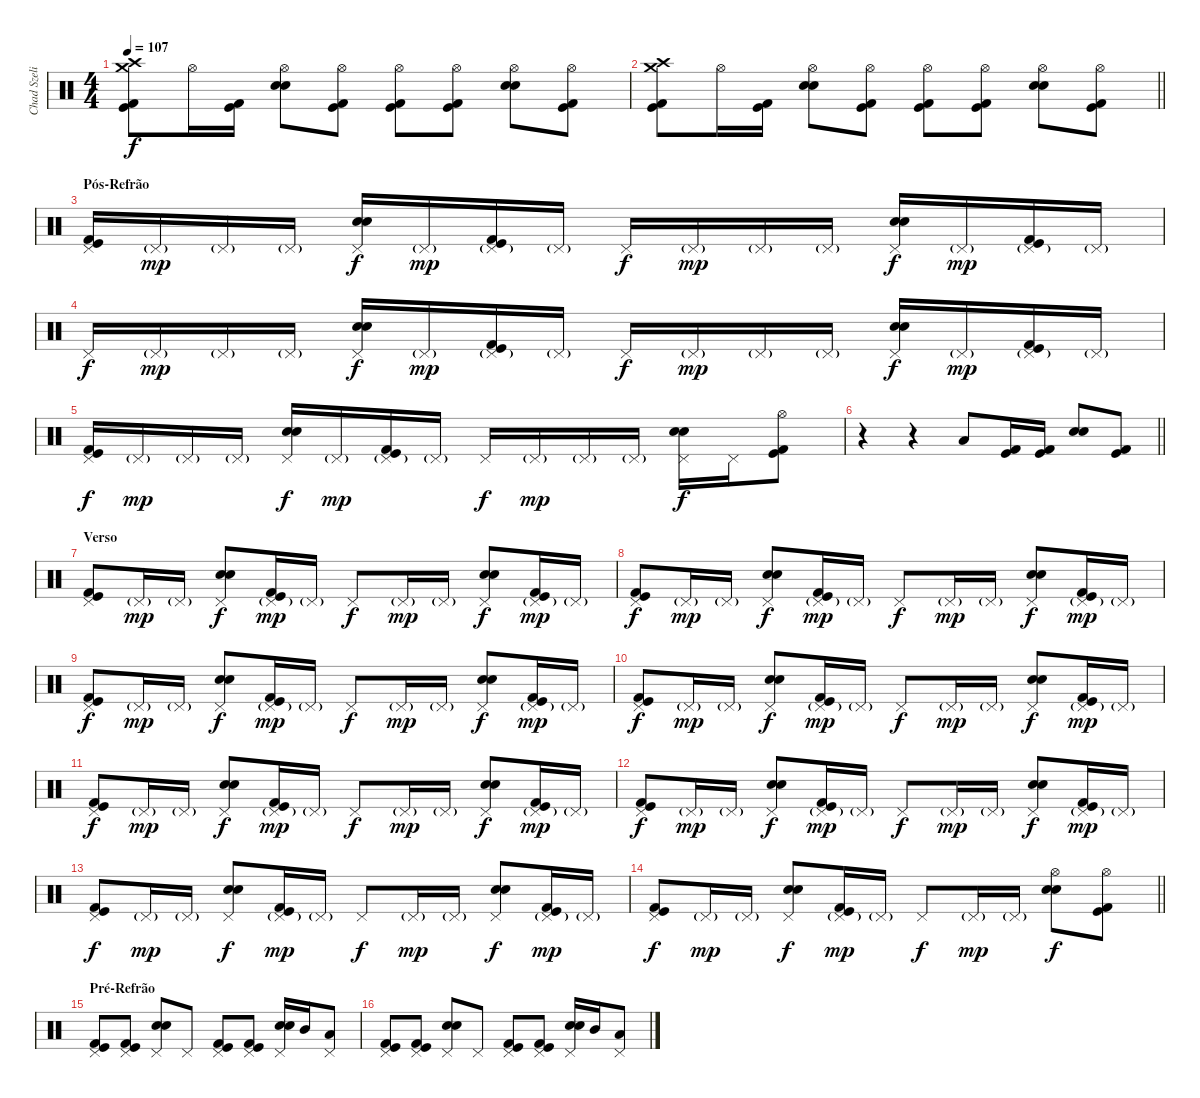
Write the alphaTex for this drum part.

\track ("Chad Szeliga" "Chad Szeli") {instrument percussion}
\staff {score}
\articulation defaults
\ts (4 4)
\tempo 107
\clef neutral
\ks c
("Crash high (hit)" "Kick (hit) 2" "Kick (hit)" "Crash medium (hit)").8{dy f} "Hi-Hat (open)".16 ("Kick (hit) 2" "Kick (hit)").16 ("Snare (hit) 2" "Snare (hit) 2" "Hi-Hat (open)").8 ("Kick (hit) 2" "Kick (hit)" "Hi-Hat (open)").8 ("Kick (hit) 2" "Kick (hit)" "Hi-Hat (open)").8 ("Kick (hit) 2" "Kick (hit)" "Hi-Hat (open)").8 ("Snare (hit) 2" "Snare (hit) 2" "Hi-Hat (open)").8 ("Kick (hit) 2" "Kick (hit)" "Hi-Hat (open)").8 |
\barLineRight lightlight
("Crash high (hit)" "Kick (hit) 2" "Kick (hit)" "Crash medium (hit)").8 "Hi-Hat (open)".16 ("Kick (hit) 2" "Kick (hit)").16 ("Snare (hit) 2" "Snare (hit) 2" "Hi-Hat (open)").8 ("Kick (hit) 2" "Kick (hit)" "Hi-Hat (open)").8 ("Kick (hit) 2" "Kick (hit)" "Hi-Hat (open)").8 ("Kick (hit) 2" "Kick (hit)" "Hi-Hat (open)").8 ("Snare (hit) 2" "Snare (hit) 2" "Hi-Hat (open)").8 ("Kick (hit) 2" "Kick (hit)" "Hi-Hat (open)").8 |
\section ("" "Pós-Refrão")
("Kick (hit) 2" "Kick (hit)" "Pedal Hi-Hat (hit)").16 "Pedal Hi-Hat (hit)"{g}.16{dy mp} "Pedal Hi-Hat (hit)"{g}.16 "Pedal Hi-Hat (hit)"{g}.16 ("Snare (hit) 2" "Snare (hit) 2" "Pedal Hi-Hat (hit)").16{dy f} "Pedal Hi-Hat (hit)"{g}.16{dy mp} ("Kick (hit) 2" "Kick (hit)" "Pedal Hi-Hat (hit)"{g}).16 "Pedal Hi-Hat (hit)"{g}.16 "Pedal Hi-Hat (hit)".16{dy f} "Pedal Hi-Hat (hit)"{g}.16{dy mp} "Pedal Hi-Hat (hit)"{g}.16 "Pedal Hi-Hat (hit)"{g}.16 ("Snare (hit) 2" "Snare (hit) 2" "Pedal Hi-Hat (hit)").16{dy f} "Pedal Hi-Hat (hit)"{g}.16{dy mp} ("Kick (hit) 2" "Kick (hit)" "Pedal Hi-Hat (hit)"{g}).16 "Pedal Hi-Hat (hit)"{g}.16 |
"Pedal Hi-Hat (hit)".16{dy f} "Pedal Hi-Hat (hit)"{g}.16{dy mp} "Pedal Hi-Hat (hit)"{g}.16 "Pedal Hi-Hat (hit)"{g}.16 ("Snare (hit) 2" "Snare (hit) 2" "Pedal Hi-Hat (hit)").16{dy f} "Pedal Hi-Hat (hit)"{g}.16{dy mp} ("Kick (hit) 2" "Kick (hit)" "Pedal Hi-Hat (hit)"{g}).16 "Pedal Hi-Hat (hit)"{g}.16 "Pedal Hi-Hat (hit)".16{dy f} "Pedal Hi-Hat (hit)"{g}.16{dy mp} "Pedal Hi-Hat (hit)"{g}.16 "Pedal Hi-Hat (hit)"{g}.16 ("Snare (hit) 2" "Snare (hit) 2" "Pedal Hi-Hat (hit)").16{dy f} "Pedal Hi-Hat (hit)"{g}.16{dy mp} ("Kick (hit) 2" "Kick (hit)" "Pedal Hi-Hat (hit)"{g}).16 "Pedal Hi-Hat (hit)"{g}.16 |
("Kick (hit) 2" "Kick (hit)" "Pedal Hi-Hat (hit)").16{dy f} "Pedal Hi-Hat (hit)"{g}.16{dy mp} "Pedal Hi-Hat (hit)"{g}.16 "Pedal Hi-Hat (hit)"{g}.16 ("Snare (hit) 2" "Snare (hit) 2" "Pedal Hi-Hat (hit)").16{dy f} "Pedal Hi-Hat (hit)"{g}.16{dy mp} ("Kick (hit) 2" "Kick (hit)" "Pedal Hi-Hat (hit)"{g}).16 "Pedal Hi-Hat (hit)"{g}.16 "Pedal Hi-Hat (hit)".16{dy f} "Pedal Hi-Hat (hit)"{g}.16{dy mp} "Pedal Hi-Hat (hit)"{g}.16 "Pedal Hi-Hat (hit)"{g}.16 ("Snare (hit) 2" "Snare (hit) 2" "Pedal Hi-Hat (hit)").16{dy f} "Pedal Hi-Hat (hit)".16 ("Kick (hit) 2" "Kick (hit)" "Hi-Hat (open)").8 |
\barLineRight lightlight
r.4 r.4 "Low Tom (hit)".8 ("Kick (hit) 2" "Kick (hit)").16 ("Kick (hit) 2" "Kick (hit)").16 ("Snare (hit) 2" "Snare (hit) 2").8 ("Kick (hit) 2" "Kick (hit)").8 |
\section ("" "Verso")
("Kick (hit) 2" "Kick (hit)" "Pedal Hi-Hat (hit)").8 "Pedal Hi-Hat (hit)"{g}.16{dy mp} "Pedal Hi-Hat (hit)"{g}.16 ("Snare (hit) 2" "Snare (hit) 2" "Pedal Hi-Hat (hit)").8{dy f} ("Kick (hit) 2" "Kick (hit)" "Pedal Hi-Hat (hit)"{g}).16{dy mp} "Pedal Hi-Hat (hit)"{g}.16 "Pedal Hi-Hat (hit)".8{dy f} "Pedal Hi-Hat (hit)"{g}.16{dy mp} "Pedal Hi-Hat (hit)"{g}.16 ("Snare (hit) 2" "Snare (hit) 2" "Pedal Hi-Hat (hit)").8{dy f} ("Kick (hit) 2" "Kick (hit)" "Pedal Hi-Hat (hit)"{g}).16{dy mp} "Pedal Hi-Hat (hit)"{g}.16 |
("Kick (hit) 2" "Kick (hit)" "Pedal Hi-Hat (hit)").8{dy f} "Pedal Hi-Hat (hit)"{g}.16{dy mp} "Pedal Hi-Hat (hit)"{g}.16 ("Snare (hit) 2" "Snare (hit) 2" "Pedal Hi-Hat (hit)").8{dy f} ("Kick (hit) 2" "Kick (hit)" "Pedal Hi-Hat (hit)"{g}).16{dy mp} "Pedal Hi-Hat (hit)"{g}.16 "Pedal Hi-Hat (hit)".8{dy f} "Pedal Hi-Hat (hit)"{g}.16{dy mp} "Pedal Hi-Hat (hit)"{g}.16 ("Snare (hit) 2" "Snare (hit) 2" "Pedal Hi-Hat (hit)").8{dy f} ("Kick (hit) 2" "Kick (hit)" "Pedal Hi-Hat (hit)"{g}).16{dy mp} "Pedal Hi-Hat (hit)"{g}.16 |
("Kick (hit) 2" "Kick (hit)" "Pedal Hi-Hat (hit)").8{dy f} "Pedal Hi-Hat (hit)"{g}.16{dy mp} "Pedal Hi-Hat (hit)"{g}.16 ("Snare (hit) 2" "Snare (hit) 2" "Pedal Hi-Hat (hit)").8{dy f} ("Kick (hit) 2" "Kick (hit)" "Pedal Hi-Hat (hit)"{g}).16{dy mp} "Pedal Hi-Hat (hit)"{g}.16 "Pedal Hi-Hat (hit)".8{dy f} "Pedal Hi-Hat (hit)"{g}.16{dy mp} "Pedal Hi-Hat (hit)"{g}.16 ("Snare (hit) 2" "Snare (hit) 2" "Pedal Hi-Hat (hit)").8{dy f} ("Kick (hit) 2" "Kick (hit)" "Pedal Hi-Hat (hit)"{g}).16{dy mp} "Pedal Hi-Hat (hit)"{g}.16 |
("Kick (hit) 2" "Kick (hit)" "Pedal Hi-Hat (hit)").8{dy f} "Pedal Hi-Hat (hit)"{g}.16{dy mp} "Pedal Hi-Hat (hit)"{g}.16 ("Snare (hit) 2" "Snare (hit) 2" "Pedal Hi-Hat (hit)").8{dy f} ("Kick (hit) 2" "Kick (hit)" "Pedal Hi-Hat (hit)"{g}).16{dy mp} "Pedal Hi-Hat (hit)"{g}.16 "Pedal Hi-Hat (hit)".8{dy f} "Pedal Hi-Hat (hit)"{g}.16{dy mp} "Pedal Hi-Hat (hit)"{g}.16 ("Snare (hit) 2" "Snare (hit) 2" "Pedal Hi-Hat (hit)").8{dy f} ("Kick (hit) 2" "Kick (hit)" "Pedal Hi-Hat (hit)"{g}).16{dy mp} "Pedal Hi-Hat (hit)"{g}.16 |
("Kick (hit) 2" "Kick (hit)" "Pedal Hi-Hat (hit)").8{dy f} "Pedal Hi-Hat (hit)"{g}.16{dy mp} "Pedal Hi-Hat (hit)"{g}.16 ("Snare (hit) 2" "Snare (hit) 2" "Pedal Hi-Hat (hit)").8{dy f} ("Kick (hit) 2" "Kick (hit)" "Pedal Hi-Hat (hit)"{g}).16{dy mp} "Pedal Hi-Hat (hit)"{g}.16 "Pedal Hi-Hat (hit)".8{dy f} "Pedal Hi-Hat (hit)"{g}.16{dy mp} "Pedal Hi-Hat (hit)"{g}.16 ("Snare (hit) 2" "Snare (hit) 2" "Pedal Hi-Hat (hit)").8{dy f} ("Kick (hit) 2" "Kick (hit)" "Pedal Hi-Hat (hit)"{g}).16{dy mp} "Pedal Hi-Hat (hit)"{g}.16 |
("Kick (hit) 2" "Kick (hit)" "Pedal Hi-Hat (hit)").8{dy f} "Pedal Hi-Hat (hit)"{g}.16{dy mp} "Pedal Hi-Hat (hit)"{g}.16 ("Snare (hit) 2" "Snare (hit) 2" "Pedal Hi-Hat (hit)").8{dy f} ("Kick (hit) 2" "Kick (hit)" "Pedal Hi-Hat (hit)"{g}).16{dy mp} "Pedal Hi-Hat (hit)"{g}.16 "Pedal Hi-Hat (hit)".8{dy f} "Pedal Hi-Hat (hit)"{g}.16{dy mp} "Pedal Hi-Hat (hit)"{g}.16 ("Snare (hit) 2" "Snare (hit) 2" "Pedal Hi-Hat (hit)").8{dy f} ("Kick (hit) 2" "Kick (hit)" "Pedal Hi-Hat (hit)"{g}).16{dy mp} "Pedal Hi-Hat (hit)"{g}.16 |
("Kick (hit) 2" "Kick (hit)" "Pedal Hi-Hat (hit)").8{dy f} "Pedal Hi-Hat (hit)"{g}.16{dy mp} "Pedal Hi-Hat (hit)"{g}.16 ("Snare (hit) 2" "Snare (hit) 2" "Pedal Hi-Hat (hit)").8{dy f} ("Kick (hit) 2" "Kick (hit)" "Pedal Hi-Hat (hit)"{g}).16{dy mp} "Pedal Hi-Hat (hit)"{g}.16 "Pedal Hi-Hat (hit)".8{dy f} "Pedal Hi-Hat (hit)"{g}.16{dy mp} "Pedal Hi-Hat (hit)"{g}.16 ("Snare (hit) 2" "Snare (hit) 2" "Pedal Hi-Hat (hit)").8{dy f} ("Kick (hit) 2" "Kick (hit)" "Pedal Hi-Hat (hit)"{g}).16{dy mp} "Pedal Hi-Hat (hit)"{g}.16 |
\barLineRight lightlight
("Kick (hit) 2" "Kick (hit)" "Pedal Hi-Hat (hit)").8{dy f} "Pedal Hi-Hat (hit)"{g}.16{dy mp} "Pedal Hi-Hat (hit)"{g}.16 ("Snare (hit) 2" "Snare (hit) 2" "Pedal Hi-Hat (hit)").8{dy f} ("Kick (hit) 2" "Kick (hit)" "Pedal Hi-Hat (hit)"{g}).16{dy mp} "Pedal Hi-Hat (hit)"{g}.16 "Pedal Hi-Hat (hit)".8{dy f} "Pedal Hi-Hat (hit)"{g}.16{dy mp} "Pedal Hi-Hat (hit)"{g}.16 ("Snare (hit) 2" "Snare (hit) 2" "Hi-Hat (open)").8{dy f} ("Kick (hit) 2" "Kick (hit)" "Hi-Hat (open)").8 |
\section ("" "Pré-Refrão")
("Kick (hit) 2" "Kick (hit)" "Pedal Hi-Hat (hit)").8 ("Kick (hit) 2" "Kick (hit)" "Pedal Hi-Hat (hit)").8 ("Snare (hit) 2" "Snare (hit) 2" "Pedal Hi-Hat (hit)").8 "Pedal Hi-Hat (hit)".8 ("Kick (hit) 2" "Kick (hit)" "Pedal Hi-Hat (hit)").8 ("Kick (hit) 2" "Kick (hit)" "Pedal Hi-Hat (hit)").8 ("Snare (hit) 2" "Snare (hit) 2" "Pedal Hi-Hat (hit)").16 "Mid Tom (hit)".16 ("Low Tom (hit)" "Pedal Hi-Hat (hit)").8 |
("Kick (hit) 2" "Kick (hit)" "Pedal Hi-Hat (hit)").8 ("Kick (hit) 2" "Kick (hit)" "Pedal Hi-Hat (hit)").8 ("Snare (hit) 2" "Snare (hit) 2" "Pedal Hi-Hat (hit)").8 "Pedal Hi-Hat (hit)".8 ("Kick (hit) 2" "Kick (hit)" "Pedal Hi-Hat (hit)").8 ("Kick (hit) 2" "Kick (hit)" "Pedal Hi-Hat (hit)").8 ("Snare (hit) 2" "Snare (hit) 2" "Pedal Hi-Hat (hit)").16 "Mid Tom (hit)".16 ("Low Tom (hit)" "Pedal Hi-Hat (hit)").8
